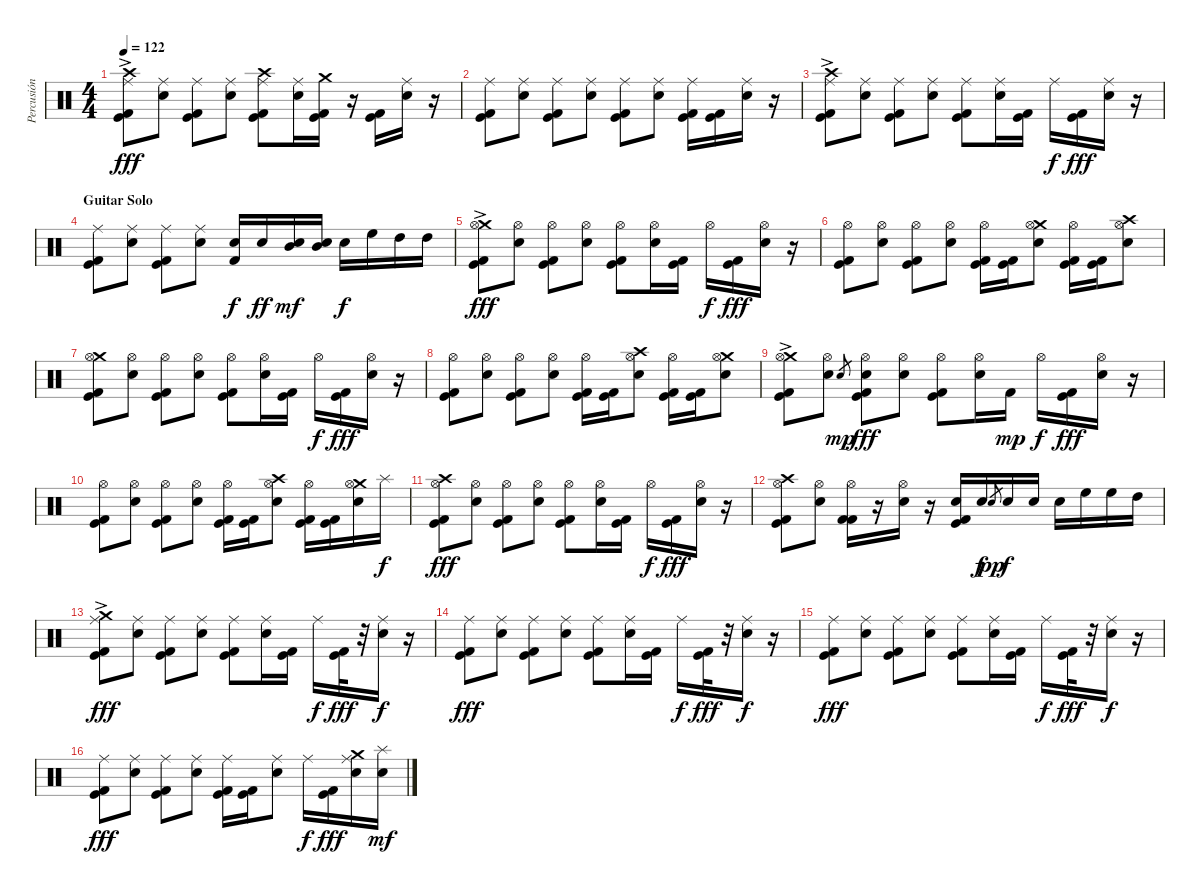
\track ("Percusión" "Percusión") {instrument percussion}
\staff {score}
\articulation defaults
\ts (4 4)
\tempo 122
\clef neutral
\ks c
("Crash high (hit)"{ac} "Ride (middle)" "Kick (hit)" "Kick (hit) 2").8{dy fff} ("Ride (middle)" "Electric Snare (hit)").8 ("Ride (middle)" "Kick (hit)" "Kick (hit) 2").8 ("Ride (middle)" "Electric Snare (hit)").8 ("Crash high (hit)" "Ride (middle)" "Kick (hit)" "Kick (hit) 2").8 ("Ride (middle)" "Electric Snare (hit)").16 ("Crash medium (hit)" "Kick (hit)" "Kick (hit) 2").16 r.16 ("Kick (hit)" "Kick (hit) 2").16 ("Ride (middle)" "Electric Snare (hit)").16 r.16 |
("Ride (middle)" "Kick (hit)" "Kick (hit) 2").8 ("Ride (middle)" "Electric Snare (hit)").8 ("Ride (middle)" "Kick (hit)" "Kick (hit) 2").8 ("Ride (middle)" "Electric Snare (hit)").8 ("Ride (middle)" "Kick (hit)" "Kick (hit) 2").8 ("Ride (middle)" "Electric Snare (hit)").8 ("Ride (middle)" "Kick (hit)" "Kick (hit) 2").16 ("Kick (hit)" "Kick (hit) 2").16 ("Ride (middle)" "Electric Snare (hit)").16 r.16 |
("Crash high (hit)"{ac} "Ride (middle)" "Kick (hit)" "Kick (hit) 2").8 ("Ride (middle)" "Electric Snare (hit)").8 ("Ride (middle)" "Kick (hit)" "Kick (hit) 2").8 ("Ride (middle)" "Electric Snare (hit)").8 ("Ride (middle)" "Kick (hit)" "Kick (hit) 2").8 ("Ride (middle)" "Electric Snare (hit)").16 ("Kick (hit)" "Kick (hit) 2").16 "Ride (middle)".16{dy f} ("Kick (hit)" "Kick (hit) 2").16{dy fff} ("Ride (middle)" "Electric Snare (hit)").16 r.16 |
\section ("" "Guitar Solo")
("Ride (middle)" "Kick (hit)" "Kick (hit) 2").8 ("Ride (middle)" "Electric Snare (hit)").8 ("Ride (middle)" "Kick (hit)" "Kick (hit) 2").8 ("Ride (middle)" "Electric Snare (hit)").8 ("Electric Snare (hit)" "Kick (hit) 2").16{dy f} "Electric Snare (hit)".16{dy ff} ("Mid Tom (hit)" "Electric Snare (hit)").16{dy mf} ("Mid Tom (hit)" "Electric Snare (hit)").16 "Electric Snare (hit)".16{dy f} "High Floor Tom (hit)".16 "High Tom (hit)".16 "High Tom (hit)".16 |
("Crash medium (hit)"{ac} "Hi-Hat (open)" "Kick (hit)" "Kick (hit) 2").8{dy fff} ("Hi-Hat (open)" "Electric Snare (hit)").8 ("Hi-Hat (open)" "Kick (hit)" "Kick (hit) 2").8 ("Hi-Hat (open)" "Electric Snare (hit)").8 ("Hi-Hat (open)" "Kick (hit)" "Kick (hit) 2").8 ("Hi-Hat (open)" "Electric Snare (hit)").16 ("Kick (hit)" "Kick (hit) 2").16 "Hi-Hat (open)".16{dy f} ("Kick (hit)" "Kick (hit) 2").16{dy fff} ("Hi-Hat (open)" "Electric Snare (hit)").16 r.16 |
("Hi-Hat (open)" "Kick (hit)" "Kick (hit) 2").8 ("Hi-Hat (open)" "Electric Snare (hit)").8 ("Hi-Hat (open)" "Kick (hit)" "Kick (hit) 2").8 ("Hi-Hat (open)" "Electric Snare (hit)").8 ("Hi-Hat (open)" "Kick (hit)" "Kick (hit) 2").16 ("Kick (hit)" "Kick (hit) 2").16 ("Crash medium (hit)" "Hi-Hat (open)" "Electric Snare (hit)").8 ("Hi-Hat (open)" "Kick (hit)" "Kick (hit) 2").16 ("Kick (hit)" "Kick (hit) 2").16 ("Crash high (hit)" "Hi-Hat (open)" "Electric Snare (hit)").8 |
("Crash medium (hit)" "Hi-Hat (open)" "Kick (hit)" "Kick (hit) 2").8 ("Hi-Hat (open)" "Electric Snare (hit)").8 ("Hi-Hat (open)" "Kick (hit)" "Kick (hit) 2").8 ("Hi-Hat (open)" "Electric Snare (hit)").8 ("Hi-Hat (open)" "Kick (hit)" "Kick (hit) 2").8 ("Hi-Hat (open)" "Electric Snare (hit)").16 ("Kick (hit)" "Kick (hit) 2").16 "Hi-Hat (open)".16{dy f} ("Kick (hit)" "Kick (hit) 2").16{dy fff} ("Hi-Hat (open)" "Electric Snare (hit)").16 r.16 |
("Hi-Hat (open)" "Kick (hit)" "Kick (hit) 2").8 ("Hi-Hat (open)" "Electric Snare (hit)").8 ("Hi-Hat (open)" "Kick (hit)" "Kick (hit) 2").8 ("Hi-Hat (open)" "Electric Snare (hit)").8 ("Hi-Hat (open)" "Kick (hit)" "Kick (hit) 2").16 ("Kick (hit)" "Kick (hit) 2").16 ("Crash high (hit)" "Hi-Hat (open)" "Electric Snare (hit)").8 ("Hi-Hat (open)" "Kick (hit)" "Kick (hit) 2").16 ("Kick (hit)" "Kick (hit) 2").16 ("Crash medium (hit)" "Hi-Hat (open)" "Electric Snare (hit)").8 |
("Crash medium (hit)"{ac} "Hi-Hat (open)" "Kick (hit)" "Kick (hit) 2").8 ("Hi-Hat (open)" "Electric Snare (hit)").8 "Electric Snare (hit)".8{gr dy mp} ("Hi-Hat (open)" "Snare (hit)" "Kick (hit)" "Kick (hit) 2").8{dy fff} ("Hi-Hat (open)" "Electric Snare (hit)").8 ("Hi-Hat (open)" "Kick (hit)" "Kick (hit) 2").8 ("Hi-Hat (open)" "Electric Snare (hit)").16 "Kick (hit) 2".16{dy mp} "Hi-Hat (open)".16{dy f} ("Kick (hit)" "Kick (hit) 2").16{dy fff} ("Hi-Hat (open)" "Electric Snare (hit)").16 r.16 |
("Hi-Hat (open)" "Kick (hit)" "Kick (hit) 2").8 ("Hi-Hat (open)" "Electric Snare (hit)").8 ("Hi-Hat (open)" "Kick (hit)" "Kick (hit) 2").8 ("Hi-Hat (open)" "Electric Snare (hit)").8 ("Hi-Hat (open)" "Kick (hit)" "Kick (hit) 2").16 ("Kick (hit)" "Kick (hit) 2").16 ("Crash high (hit)" "Hi-Hat (open)" "Electric Snare (hit)").8 ("Hi-Hat (open)" "Kick (hit)" "Kick (hit) 2").16 ("Kick (hit)" "Kick (hit) 2").16 ("Crash medium (hit)" "Hi-Hat (open)" "Electric Snare (hit)").16 "Splash (hit)".16{dy f} |
("Crash high (hit)" "Hi-Hat (open)" "Kick (hit)" "Kick (hit) 2").8{dy fff} ("Hi-Hat (open)" "Electric Snare (hit)").8 ("Hi-Hat (open)" "Kick (hit)" "Kick (hit) 2").8 ("Hi-Hat (open)" "Electric Snare (hit)").8 ("Hi-Hat (open)" "Kick (hit)" "Kick (hit) 2").8 ("Hi-Hat (open)" "Electric Snare (hit)").16 ("Kick (hit)" "Kick (hit) 2").16 "Hi-Hat (open)".16{dy f} ("Kick (hit)" "Kick (hit) 2").16{dy fff} ("Hi-Hat (open)" "Electric Snare (hit)").16 r.16 |
("Crash high (hit)" "Hi-Hat (open)" "Kick (hit)" "Kick (hit) 2").8 ("Hi-Hat (open)" "Electric Snare (hit)").8 ("Hi-Hat (open)" "Kick (hit) 2" "Kick (hit) 2").16 r.16 ("Hi-Hat (open)" "Electric Snare (hit)").16 r.16 ("Electric Snare (hit)" "Kick (hit)" "Kick (hit) 2").16 "Electric Snare (hit)".16{dy f} "Electric Snare (hit)".8{gr dy pp} "Electric Snare (hit)".16{dy f} "Electric Snare (hit)".16 "Electric Snare (hit)".16 "High Floor Tom (hit)".16 "High Floor Tom (hit)".16 "High Tom (hit)".16 |
("Crash medium (hit)"{ac} "Ride (middle)" "Kick (hit)" "Kick (hit) 2").8{dy fff} ("Ride (middle)" "Electric Snare (hit)").8 ("Ride (middle)" "Kick (hit)" "Kick (hit) 2").8 ("Ride (middle)" "Electric Snare (hit)").8 ("Ride (middle)" "Kick (hit)" "Kick (hit) 2").8 ("Ride (middle)" "Electric Snare (hit)").16 ("Kick (hit)" "Kick (hit) 2").16 "Ride (middle)".16{dy f} ("Kick (hit)" "Kick (hit) 2").32{dy fff} r.32 ("Ride (middle)" "Electric Snare (hit)").16{dy f} r.16 |
("Ride (middle)" "Kick (hit)" "Kick (hit) 2").8{dy fff} ("Ride (middle)" "Electric Snare (hit)").8 ("Ride (middle)" "Kick (hit)" "Kick (hit) 2").8 ("Ride (middle)" "Electric Snare (hit)").8 ("Ride (middle)" "Kick (hit)" "Kick (hit) 2").8 ("Ride (middle)" "Electric Snare (hit)").16 ("Kick (hit)" "Kick (hit) 2").16 "Ride (middle)".16{dy f} ("Kick (hit)" "Kick (hit) 2").32{dy fff} r.32 ("Ride (middle)" "Electric Snare (hit)").16{dy f} r.16 |
("Ride (middle)" "Kick (hit)" "Kick (hit) 2").8{dy fff} ("Ride (middle)" "Electric Snare (hit)").8 ("Ride (middle)" "Kick (hit)" "Kick (hit) 2").8 ("Ride (middle)" "Electric Snare (hit)").8 ("Ride (middle)" "Kick (hit)" "Kick (hit) 2").8 ("Ride (middle)" "Electric Snare (hit)").16 ("Kick (hit)" "Kick (hit) 2").16 "Ride (middle)".16{dy f} ("Kick (hit)" "Kick (hit) 2").32{dy fff} r.32 ("Ride (middle)" "Electric Snare (hit)").16{dy f} r.16 |
("Ride (middle)" "Kick (hit)" "Kick (hit) 2").8{dy fff} ("Ride (middle)" "Electric Snare (hit)").8 ("Ride (middle)" "Kick (hit)" "Kick (hit) 2").8 ("Ride (middle)" "Electric Snare (hit)").8 ("Ride (middle)" "Kick (hit)" "Kick (hit) 2").16 ("Kick (hit)" "Kick (hit) 2").16 ("Ride (middle)" "Electric Snare (hit)").8 "Ride (middle)".16{dy f} ("Kick (hit)" "Kick (hit) 2").16{dy fff} ("Crash medium (hit)" "Ride (middle)" "Electric Snare (hit)").16 ("Splash (hit)" "Electric Snare (hit)").16{dy mf}
